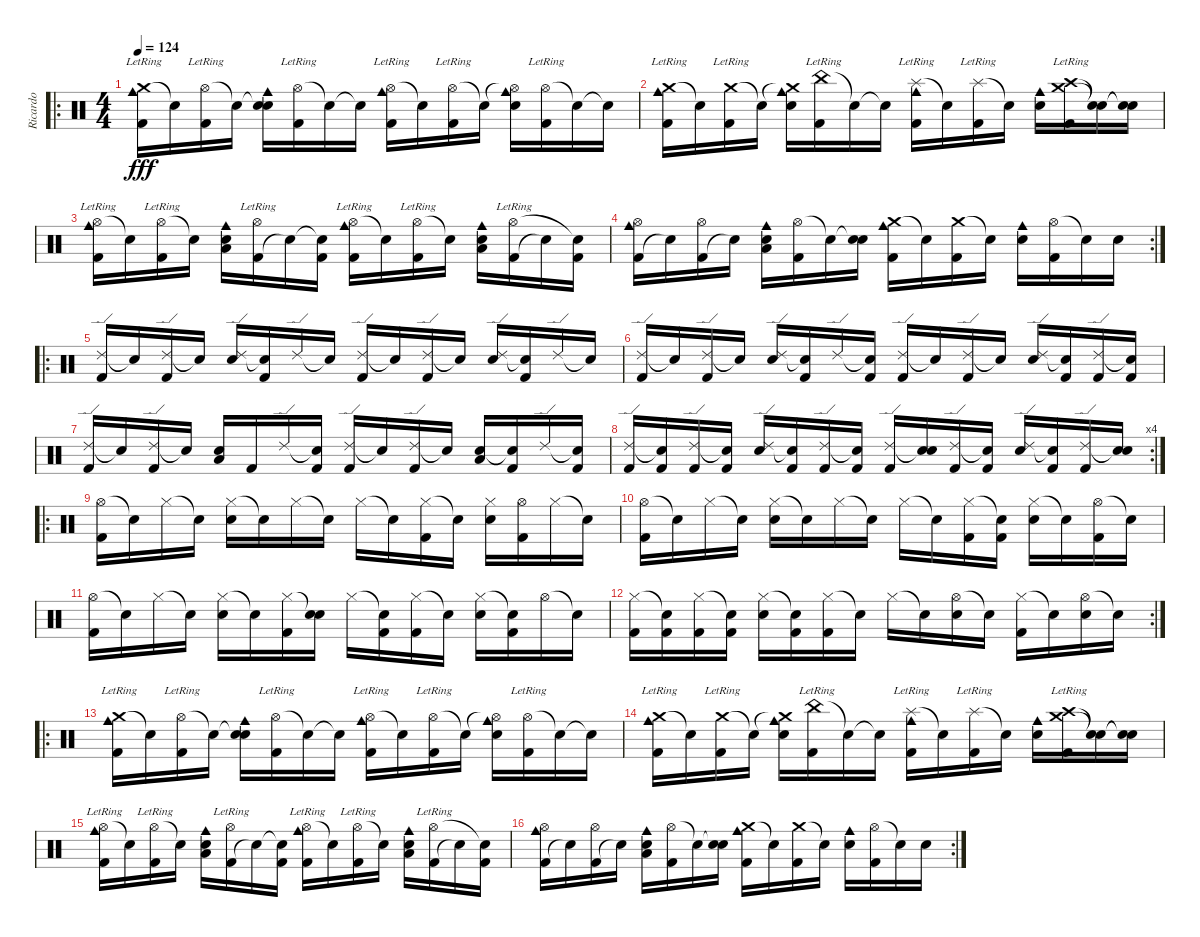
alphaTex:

\track ("Ricardo" "Ricardo") {instrument percussion}
\staff {score}
\articulation defaults
\ro
\ts (4 4)
\tempo 124
\clef neutral
\ks c
("Crash medium (hit)"{lr} "Kick (hit) 2" "Cowbell medium (hit)").16{dy fff} "Snare (hit)"{t}.16 ("Hi-Hat (open)"{lr} "Kick (hit) 2").16 "Snare (hit)"{t}.16 ("Snare (hit)"{t} "Electric Snare (hit)" "Cowbell medium (hit)").16 ("Hi-Hat (open)"{lr} "Kick (hit) 2").16 "Snare (hit)"{t}.16 "Snare (hit)"{t}.16 ("Hi-Hat (open)"{lr} "Kick (hit) 2" "Cowbell medium (hit)").16 "Snare (hit)"{t}.16 ("Hi-Hat (open)"{lr} "Kick (hit) 2").16 "Electric Snare (hit)"{t}.16 ("Hi-Hat (open)"{t} "Electric Snare (hit)" "Cowbell medium (hit)").16 ("Hi-Hat (open)"{lr} "Kick (hit) 2").16 "Snare (hit)"{t}.16 "Snare (hit)"{t}.16 |
("Crash medium (hit)"{lr} "Kick (hit) 2" "Cowbell medium (hit)").16 "Snare (hit)"{t}.16 ("Crash medium (hit)"{lr} "Kick (hit) 2").16 "Snare (hit)"{t}.16 ("Crash medium (hit)"{t} "Electric Snare (hit)" "Cowbell medium (hit)").16 ("China (hit)"{lr} "Kick (hit) 2").16 "Snare (hit)"{t}.16 "Snare (hit)"{t}.16 ("Splash (hit)"{lr} "Kick (hit) 2" "Cowbell medium (hit)").16 "Snare (hit)"{t}.16 ("Splash (hit)"{lr} "Kick (hit) 2").16 "Snare (hit)"{t}.16 ("Electric Snare (hit)" "Cowbell medium (hit)").16 ("Crash high (hit)"{lr} "Crash medium (hit)"{lr} "Kick (hit) 2").16 ("Snare (hit)"{t} "Snare (hit)"{t}).16 ("Snare (hit)"{t} "Snare (hit)"{t}).16 |
("Hi-Hat (open)"{lr} "Kick (hit) 2" "Cowbell medium (hit)").16 "Snare (hit)"{t}.16 ("Hi-Hat (open)"{lr} "Kick (hit) 2").16 "Snare (hit)"{t}.16 ("Electric Snare (hit)" "Low Floor Tom (hit)" "Cowbell medium (hit)").16 ("Kick (hit) 2" "Hi-Hat (open)"{lr}).16 "Snare (hit)"{t}.16 ("Snare (hit)"{t} "Kick (hit) 2").16 ("Hi-Hat (open)"{lr} "Kick (hit) 2" "Cowbell medium (hit)").16 "Snare (hit)"{t}.16 ("Hi-Hat (open)"{lr} "Kick (hit) 2").16 "Snare (hit)"{t}.16 ("Electric Snare (hit)" "Low Floor Tom (hit)" "Cowbell medium (hit)").16 ("Kick (hit) 2" "Hi-Hat (open)"{lr}).16 "Snare (hit)"{t}.16 ("Kick (hit) 2" "Snare (hit)"{t}).16 |
\rc 2
("Kick (hit) 2" "Hi-Hat (open)" "Cowbell medium (hit)").16 "Snare (hit)"{t}.16 ("Kick (hit) 2" "Hi-Hat (open)").16 "Snare (hit)"{t}.16 ("Low Floor Tom (hit)" "Electric Snare (hit)" "Cowbell medium (hit)").16 ("Hi-Hat (open)" "Kick (hit) 2").16 "Snare (hit)"{t}.16 ("Snare (hit)"{t} "Electric Snare (hit)").16 ("Crash medium (hit)" "Kick (hit) 2" "Cowbell medium (hit)").16 "Snare (hit)"{t}.16 ("Crash medium (hit)" "Kick (hit) 2").16 "Snare (hit)"{t}.16 ("Electric Snare (hit)" "Cowbell medium (hit)").16 ("Hi-Hat (open)" "Kick (hit) 2").16 "Snare (hit)"{t}.16 "Electric Snare (hit)".16 |
\ro
("Ride (edge) 2" "Kick (hit) 2").16 "Snare (hit)"{t}.16 ("Ride (edge) 2" "Kick (hit) 2").16 "Snare (hit)"{t}.16 ("Ride (edge) 2" "Electric Snare (hit)").16 ("Snare (hit)"{t} "Kick (hit) 2").16 "Ride (edge) 2".16 "Snare (hit)"{t}.16 ("Ride (edge) 2" "Kick (hit) 2").16 "Snare (hit)"{t}.16 ("Ride (edge) 2" "Kick (hit) 2").16 "Snare (hit)"{t}.16 ("Ride (edge) 2" "Electric Snare (hit)").16 ("Snare (hit)"{t} "Kick (hit) 2").16 "Ride (edge) 2".16 "Snare (hit)"{t}.16 |
("Ride (edge) 2" "Kick (hit) 2").16 "Snare (hit)"{t}.16 ("Ride (edge) 2" "Kick (hit) 2").16 "Snare (hit)"{t}.16 ("Ride (edge) 2" "Electric Snare (hit)").16 ("Snare (hit)"{t} "Kick (hit) 2").16 "Ride (edge) 2".16 ("Snare (hit)"{t} "Kick (hit) 2").16 ("Ride (edge) 2" "Kick (hit) 2").16 "Snare (hit)"{t}.16 ("Ride (edge) 2" "Kick (hit) 2").16 "Snare (hit)"{t}.16 ("Ride (edge) 2" "Electric Snare (hit)").16 ("Snare (hit)"{t} "Kick (hit) 2").16 ("Ride (edge) 2" "Kick (hit) 2").16 ("Snare (hit)"{t} "Kick (hit) 2").16 |
("Ride (edge) 2" "Kick (hit) 2").16 "Snare (hit)"{t}.16 ("Ride (edge) 2" "Kick (hit) 2").16 "Snare (hit)"{t}.16 ("Electric Snare (hit)" "Low Floor Tom (hit)").16 "Kick (hit) 2".16 "Ride (edge) 2".16 ("Snare (hit)"{t} "Kick (hit) 2").16 ("Ride (edge) 2" "Kick (hit) 2").16 "Snare (hit)"{t}.16 ("Ride (edge) 2" "Kick (hit) 2").16 "Snare (hit)"{t}.16 ("Electric Snare (hit)" "Low Floor Tom (hit)").16 ("Snare (hit)"{t} "Kick (hit) 2").16 "Ride (edge) 2".16 ("Snare (hit)"{t} "Kick (hit) 2").16 |
\rc 4
("Ride (edge) 2" "Kick (hit) 2").16 ("Snare (hit)"{t} "Kick (hit) 2").16 ("Ride (edge) 2" "Kick (hit) 2").16 ("Snare (hit)"{t} "Kick (hit) 2").16 ("Ride (edge) 2" "Electric Snare (hit)").16 ("Snare (hit)"{t} "Kick (hit) 2").16 ("Ride (edge) 2" "Kick (hit) 2").16 ("Snare (hit)"{t} "Kick (hit) 2").16 ("Ride (edge) 2" "Kick (hit) 2").16 ("Snare (hit)"{t} "Electric Snare (hit)").16 ("Ride (edge) 2" "Kick (hit) 2").16 ("Snare (hit)"{t} "Kick (hit) 2").16 ("Ride (edge) 2" "Electric Snare (hit)").16 ("Snare (hit)"{t} "Kick (hit) 2").16 ("Ride (edge) 2" "Kick (hit) 2").16 ("Snare (hit)"{t} "Electric Snare (hit)").16 |
\ro
("Hi-Hat (open)" "Kick (hit) 2").16 "Snare (hit)"{t}.16 "Hi-Hat (closed)".16 "Snare (hit)"{t}.16 ("Hi-Hat (closed)" "Electric Snare (hit)").16 "Snare (hit)"{t}.16 "Hi-Hat (closed)".16 "Snare (hit)"{t}.16 "Hi-Hat (closed)".16 "Snare (hit)"{t}.16 ("Hi-Hat (closed)" "Kick (hit) 2").16 "Snare (hit)"{t}.16 ("Hi-Hat (closed)" "Electric Snare (hit)").16 ("Hi-Hat (open)" "Kick (hit) 2").16 "Hi-Hat (closed)".16 "Snare (hit)"{t}.16 |
("Hi-Hat (open)" "Kick (hit) 2").16 "Snare (hit)"{t}.16 "Hi-Hat (closed)".16 "Snare (hit)"{t}.16 ("Hi-Hat (closed)" "Electric Snare (hit)").16 "Snare (hit)"{t}.16 "Hi-Hat (closed)".16 "Snare (hit)"{t}.16 "Hi-Hat (closed)".16 "Snare (hit)"{t}.16 ("Hi-Hat (closed)" "Kick (hit) 2").16 ("Snare (hit)"{t} "Kick (hit) 2").16 ("Hi-Hat (closed)" "Electric Snare (hit)").16 "Snare (hit)"{t}.16 ("Hi-Hat (open)" "Kick (hit) 2").16 "Snare (hit)"{t}.16 |
("Hi-Hat (open)" "Kick (hit) 2").16 "Snare (hit)"{t}.16 "Hi-Hat (closed)".16 "Snare (hit)"{t}.16 ("Hi-Hat (closed)" "Electric Snare (hit)").16 "Snare (hit)"{t}.16 ("Hi-Hat (closed)" "Kick (hit) 2").16 ("Snare (hit)"{t} "Electric Snare (hit)").16 "Hi-Hat (closed)".16 ("Snare (hit)"{t} "Kick (hit) 2").16 ("Hi-Hat (closed)" "Kick (hit) 2").16 "Snare (hit)"{t}.16 ("Hi-Hat (closed)" "Electric Snare (hit)").16 ("Snare (hit)"{t} "Kick (hit) 2").16 "Hi-Hat (open)".16 "Snare (hit)"{t}.16 |
\rc 2
("Hi-Hat (closed)" "Kick (hit) 2").16 ("Snare (hit)"{t} "Kick (hit) 2").16 ("Hi-Hat (closed)" "Kick (hit) 2").16 ("Snare (hit)"{t} "Kick (hit) 2").16 ("Hi-Hat (closed)" "Electric Snare (hit)").16 ("Snare (hit)"{t} "Kick (hit) 2").16 ("Hi-Hat (closed)" "Kick (hit) 2").16 "Snare (hit)"{t}.16 "Hi-Hat (closed)".16 "Snare (hit)"{t}.16 ("Hi-Hat (open)" "Electric Snare (hit)").16 "Snare (hit)"{t}.16 ("Hi-Hat (closed)" "Kick (hit) 2").16 "Snare (hit)"{t}.16 ("Hi-Hat (open)" "Electric Snare (hit)").16 "Snare (hit)"{t}.16 |
\ro
("Crash medium (hit)"{lr} "Kick (hit) 2" "Cowbell medium (hit)").16 "Snare (hit)"{t}.16 ("Hi-Hat (open)"{lr} "Kick (hit) 2").16 "Snare (hit)"{t}.16 ("Snare (hit)"{t} "Electric Snare (hit)" "Cowbell medium (hit)").16 ("Hi-Hat (open)"{lr} "Kick (hit) 2").16 "Snare (hit)"{t}.16 "Snare (hit)"{t}.16 ("Hi-Hat (open)"{lr} "Kick (hit) 2" "Cowbell medium (hit)").16 "Snare (hit)"{t}.16 ("Hi-Hat (open)"{lr} "Kick (hit) 2").16 "Electric Snare (hit)"{t}.16 ("Hi-Hat (open)"{t} "Electric Snare (hit)" "Cowbell medium (hit)").16 ("Hi-Hat (open)"{lr} "Kick (hit) 2").16 "Snare (hit)"{t}.16 "Snare (hit)"{t}.16 |
("Crash medium (hit)"{lr} "Kick (hit) 2" "Cowbell medium (hit)").16 "Snare (hit)"{t}.16 ("Crash medium (hit)"{lr} "Kick (hit) 2").16 "Snare (hit)"{t}.16 ("Crash medium (hit)"{t} "Electric Snare (hit)" "Cowbell medium (hit)").16 ("China (hit)"{lr} "Kick (hit) 2").16 "Snare (hit)"{t}.16 "Snare (hit)"{t}.16 ("Splash (hit)"{lr} "Kick (hit) 2" "Cowbell medium (hit)").16 "Snare (hit)"{t}.16 ("Splash (hit)"{lr} "Kick (hit) 2").16 "Snare (hit)"{t}.16 ("Electric Snare (hit)" "Cowbell medium (hit)").16 ("Crash high (hit)"{lr} "Crash medium (hit)"{lr} "Kick (hit) 2").16 ("Snare (hit)"{t} "Snare (hit)"{t}).16 ("Snare (hit)"{t} "Snare (hit)"{t}).16 |
("Hi-Hat (open)"{lr} "Kick (hit) 2" "Cowbell medium (hit)").16 "Snare (hit)"{t}.16 ("Hi-Hat (open)"{lr} "Kick (hit) 2").16 "Snare (hit)"{t}.16 ("Electric Snare (hit)" "Low Floor Tom (hit)" "Cowbell medium (hit)").16 ("Kick (hit) 2" "Hi-Hat (open)"{lr}).16 "Snare (hit)"{t}.16 ("Snare (hit)"{t} "Kick (hit) 2").16 ("Hi-Hat (open)"{lr} "Kick (hit) 2" "Cowbell medium (hit)").16 "Snare (hit)"{t}.16 ("Hi-Hat (open)"{lr} "Kick (hit) 2").16 "Snare (hit)"{t}.16 ("Electric Snare (hit)" "Low Floor Tom (hit)" "Cowbell medium (hit)").16 ("Kick (hit) 2" "Hi-Hat (open)"{lr}).16 "Snare (hit)"{t}.16 ("Kick (hit) 2" "Snare (hit)"{t}).16 |
\rc 2
("Kick (hit) 2" "Hi-Hat (open)" "Cowbell medium (hit)").16 "Snare (hit)"{t}.16 ("Kick (hit) 2" "Hi-Hat (open)").16 "Snare (hit)"{t}.16 ("Low Floor Tom (hit)" "Electric Snare (hit)" "Cowbell medium (hit)").16 ("Hi-Hat (open)" "Kick (hit) 2").16 "Snare (hit)"{t}.16 ("Snare (hit)"{t} "Electric Snare (hit)").16 ("Crash medium (hit)" "Kick (hit) 2" "Cowbell medium (hit)").16 "Snare (hit)"{t}.16 ("Crash medium (hit)" "Kick (hit) 2").16 "Snare (hit)"{t}.16 ("Electric Snare (hit)" "Cowbell medium (hit)").16 ("Hi-Hat (open)" "Kick (hit) 2").16 "Snare (hit)"{t}.16 "Electric Snare (hit)".16
